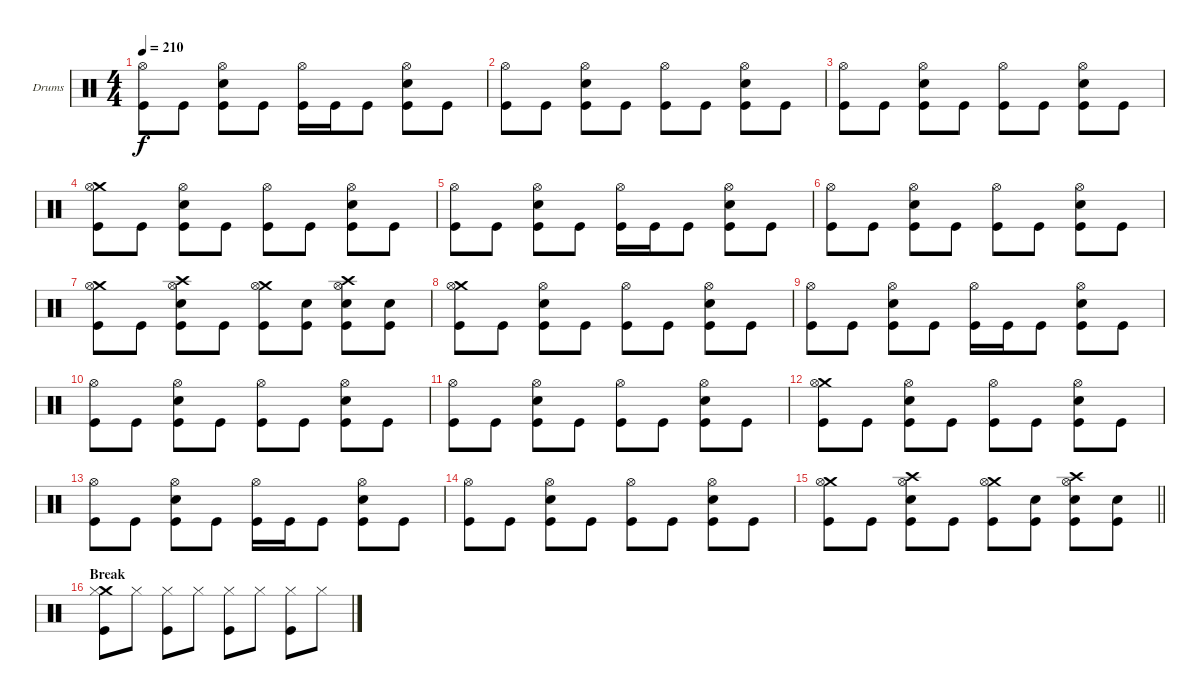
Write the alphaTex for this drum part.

\bracketExtendMode groupsimilarinstruments
\firstSystemTrackNameOrientation horizontal
\otherSystemsTrackNameOrientation horizontal
\track ("Drumkit" "Drums") {instrument percussion}
\staff {score}
\articulation defaults
\ts (4 4)
\tempo 210
\clef neutral
\ks c
("Hi-Hat (open)" "Kick (hit)").8{dy f} "Kick (hit)".8 ("Hi-Hat (open)" "Snare (hit) 2" "Kick (hit)").8 "Kick (hit)".8 ("Hi-Hat (open)" "Kick (hit)").16 "Kick (hit)".16 "Kick (hit)".8 ("Hi-Hat (open)" "Snare (hit) 2" "Kick (hit)").8 "Kick (hit)".8 |
("Hi-Hat (open)" "Kick (hit)").8 "Kick (hit)".8 ("Hi-Hat (open)" "Snare (hit) 2" "Kick (hit)").8 "Kick (hit)".8 ("Hi-Hat (open)" "Kick (hit)").8 "Kick (hit)".8 ("Hi-Hat (open)" "Snare (hit) 2" "Kick (hit)").8 "Kick (hit)".8 |
("Hi-Hat (open)" "Kick (hit)").8 "Kick (hit)".8 ("Hi-Hat (open)" "Snare (hit) 2" "Kick (hit)").8 "Kick (hit)".8 ("Hi-Hat (open)" "Kick (hit)").8 "Kick (hit)".8 ("Hi-Hat (open)" "Snare (hit) 2" "Kick (hit)").8 "Kick (hit)".8 |
("Crash medium (hit)" "Hi-Hat (open)" "Kick (hit)").8 "Kick (hit)".8 ("Hi-Hat (open)" "Snare (hit) 2" "Kick (hit)").8 "Kick (hit)".8 ("Hi-Hat (open)" "Kick (hit)").8 "Kick (hit)".8 ("Hi-Hat (open)" "Snare (hit) 2" "Kick (hit)").8 "Kick (hit)".8 |
("Hi-Hat (open)" "Kick (hit)").8 "Kick (hit)".8 ("Hi-Hat (open)" "Snare (hit) 2" "Kick (hit)").8 "Kick (hit)".8 ("Hi-Hat (open)" "Kick (hit)").16 "Kick (hit)".16 "Kick (hit)".8 ("Hi-Hat (open)" "Snare (hit) 2" "Kick (hit)").8 "Kick (hit)".8 |
("Hi-Hat (open)" "Kick (hit)").8 "Kick (hit)".8 ("Hi-Hat (open)" "Snare (hit) 2" "Kick (hit)").8 "Kick (hit)".8 ("Hi-Hat (open)" "Kick (hit)").8 "Kick (hit)".8 ("Hi-Hat (open)" "Snare (hit) 2" "Kick (hit)").8 "Kick (hit)".8 |
("Crash medium (hit)" "Hi-Hat (open)" "Kick (hit)").8 "Kick (hit)".8 ("Crash high (hit)" "Hi-Hat (open)" "Snare (hit) 2" "Kick (hit)").8 "Kick (hit)".8 ("Crash medium (hit)" "Hi-Hat (open)" "Kick (hit)").8 ("Snare (hit) 2" "Kick (hit)").8 ("Crash high (hit)" "Hi-Hat (open)" "Snare (hit) 2" "Kick (hit)").8 ("Snare (hit) 2" "Kick (hit)").8 |
("Crash medium (hit)" "Hi-Hat (open)" "Kick (hit)").8 "Kick (hit)".8 ("Hi-Hat (open)" "Snare (hit) 2" "Kick (hit)").8 "Kick (hit)".8 ("Hi-Hat (open)" "Kick (hit)").8 "Kick (hit)".8 ("Hi-Hat (open)" "Snare (hit) 2" "Kick (hit)").8 "Kick (hit)".8 |
("Hi-Hat (open)" "Kick (hit)").8 "Kick (hit)".8 ("Hi-Hat (open)" "Snare (hit) 2" "Kick (hit)").8 "Kick (hit)".8 ("Hi-Hat (open)" "Kick (hit)").16 "Kick (hit)".16 "Kick (hit)".8 ("Hi-Hat (open)" "Snare (hit) 2" "Kick (hit)").8 "Kick (hit)".8 |
("Hi-Hat (open)" "Kick (hit)").8 "Kick (hit)".8 ("Hi-Hat (open)" "Snare (hit) 2" "Kick (hit)").8 "Kick (hit)".8 ("Hi-Hat (open)" "Kick (hit)").8 "Kick (hit)".8 ("Hi-Hat (open)" "Snare (hit) 2" "Kick (hit)").8 "Kick (hit)".8 |
("Hi-Hat (open)" "Kick (hit)").8 "Kick (hit)".8 ("Hi-Hat (open)" "Snare (hit) 2" "Kick (hit)").8 "Kick (hit)".8 ("Hi-Hat (open)" "Kick (hit)").8 "Kick (hit)".8 ("Hi-Hat (open)" "Snare (hit) 2" "Kick (hit)").8 "Kick (hit)".8 |
("Crash medium (hit)" "Hi-Hat (open)" "Kick (hit)").8 "Kick (hit)".8 ("Hi-Hat (open)" "Snare (hit) 2" "Kick (hit)").8 "Kick (hit)".8 ("Hi-Hat (open)" "Kick (hit)").8 "Kick (hit)".8 ("Hi-Hat (open)" "Snare (hit) 2" "Kick (hit)").8 "Kick (hit)".8 |
("Hi-Hat (open)" "Kick (hit)").8 "Kick (hit)".8 ("Hi-Hat (open)" "Snare (hit) 2" "Kick (hit)").8 "Kick (hit)".8 ("Hi-Hat (open)" "Kick (hit)").16 "Kick (hit)".16 "Kick (hit)".8 ("Hi-Hat (open)" "Snare (hit) 2" "Kick (hit)").8 "Kick (hit)".8 |
("Hi-Hat (open)" "Kick (hit)").8 "Kick (hit)".8 ("Hi-Hat (open)" "Snare (hit) 2" "Kick (hit)").8 "Kick (hit)".8 ("Hi-Hat (open)" "Kick (hit)").8 "Kick (hit)".8 ("Hi-Hat (open)" "Snare (hit) 2" "Kick (hit)").8 "Kick (hit)".8 |
\barLineRight lightlight
("Crash medium (hit)" "Hi-Hat (open)" "Kick (hit)").8 "Kick (hit)".8 ("Crash high (hit)" "Hi-Hat (open)" "Snare (hit) 2" "Kick (hit)").8 "Kick (hit)".8 ("Crash medium (hit)" "Hi-Hat (open)" "Kick (hit)").8 ("Snare (hit) 2" "Kick (hit)").8 ("Crash high (hit)" "Hi-Hat (open)" "Snare (hit) 2" "Kick (hit)").8 ("Snare (hit) 2" "Kick (hit)").8 |
\section ("" "Break")
("Crash medium (hit)" "Hi-Hat (closed)" "Kick (hit)").8 "Hi-Hat (closed)".8 ("Hi-Hat (closed)" "Kick (hit)").8 "Hi-Hat (closed)".8 ("Hi-Hat (closed)" "Kick (hit)").8 "Hi-Hat (closed)".8 ("Hi-Hat (closed)" "Kick (hit)").8 "Hi-Hat (closed)".8
